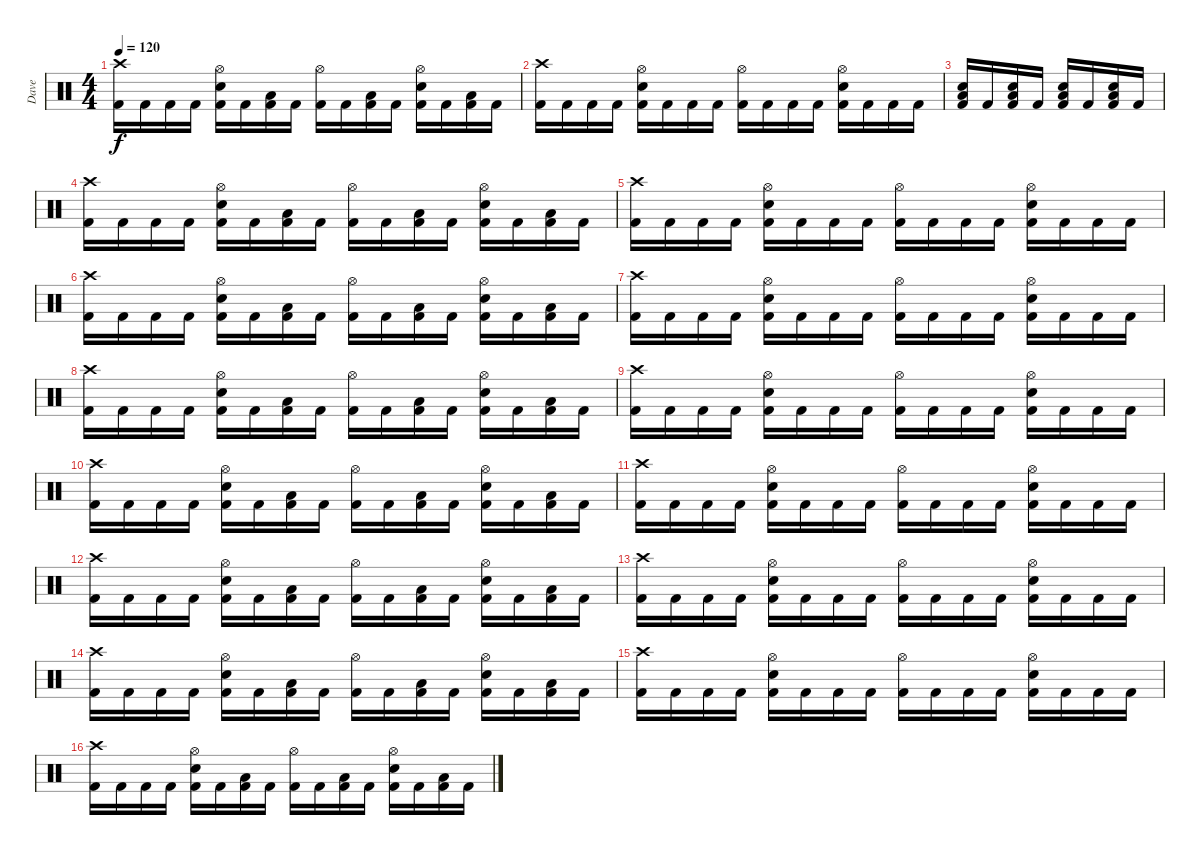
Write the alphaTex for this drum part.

\track ("Dave" "Dave") {instrument percussion}
\staff {score}
\articulation defaults
\ts (4 4)
\tempo 120
\clef neutral
\ks c
("Kick (hit) 2" "Crash high (hit)").16{dy f} "Kick (hit) 2".16 "Kick (hit) 2".16 "Kick (hit) 2".16 ("Kick (hit) 2" "Snare (hit) 2" "Hi-Hat (open)").16 "Kick (hit) 2".16 ("Kick (hit) 2" "Low Tom (hit)").16 "Kick (hit) 2".16 ("Kick (hit) 2" "Hi-Hat (open)").16 "Kick (hit) 2".16 ("Kick (hit) 2" "Low Tom (hit)").16 "Kick (hit) 2".16 ("Kick (hit) 2" "Snare (hit) 2" "Hi-Hat (open)").16 "Kick (hit) 2".16 ("Kick (hit) 2" "Low Floor Tom (hit)").16 "Kick (hit) 2".16 |
("Kick (hit) 2" "Crash high (hit)").16 "Kick (hit) 2".16 "Kick (hit) 2".16 "Kick (hit) 2".16 ("Kick (hit) 2" "Snare (hit) 2" "Hi-Hat (open)").16 "Kick (hit) 2".16 "Kick (hit) 2".16 "Kick (hit) 2".16 ("Kick (hit) 2" "Hi-Hat (open)").16 "Kick (hit) 2".16 "Kick (hit) 2".16 "Kick (hit) 2".16 ("Kick (hit) 2" "Snare (hit) 2" "Hi-Hat (open)").16 "Kick (hit) 2".16 "Kick (hit) 2".16 "Kick (hit) 2".16 |
("Kick (hit) 2" "Snare (hit) 2" "Low Floor Tom (hit)").16 "Kick (hit) 2".16 ("Kick (hit) 2" "Snare (hit) 2" "Low Floor Tom (hit)").16 "Kick (hit) 2".16 ("Kick (hit) 2" "Snare (hit) 2" "Low Floor Tom (hit)").16 "Kick (hit) 2".16 ("Kick (hit) 2" "Snare (hit) 2" "Low Floor Tom (hit)").16 "Kick (hit) 2".16 |
("Kick (hit) 2" "Crash high (hit)").16 "Kick (hit) 2".16 "Kick (hit) 2".16 "Kick (hit) 2".16 ("Kick (hit) 2" "Snare (hit) 2" "Hi-Hat (open)").16 "Kick (hit) 2".16 ("Kick (hit) 2" "Low Tom (hit)").16 "Kick (hit) 2".16 ("Kick (hit) 2" "Hi-Hat (open)").16 "Kick (hit) 2".16 ("Kick (hit) 2" "Low Tom (hit)").16 "Kick (hit) 2".16 ("Kick (hit) 2" "Snare (hit) 2" "Hi-Hat (open)").16 "Kick (hit) 2".16 ("Kick (hit) 2" "Low Floor Tom (hit)").16 "Kick (hit) 2".16 |
("Kick (hit) 2" "Crash high (hit)").16 "Kick (hit) 2".16 "Kick (hit) 2".16 "Kick (hit) 2".16 ("Kick (hit) 2" "Snare (hit) 2" "Hi-Hat (open)").16 "Kick (hit) 2".16 "Kick (hit) 2".16 "Kick (hit) 2".16 ("Kick (hit) 2" "Hi-Hat (open)").16 "Kick (hit) 2".16 "Kick (hit) 2".16 "Kick (hit) 2".16 ("Kick (hit) 2" "Snare (hit) 2" "Hi-Hat (open)").16 "Kick (hit) 2".16 "Kick (hit) 2".16 "Kick (hit) 2".16 |
("Kick (hit) 2" "Crash high (hit)").16 "Kick (hit) 2".16 "Kick (hit) 2".16 "Kick (hit) 2".16 ("Kick (hit) 2" "Snare (hit) 2" "Hi-Hat (open)").16 "Kick (hit) 2".16 ("Kick (hit) 2" "Low Tom (hit)").16 "Kick (hit) 2".16 ("Kick (hit) 2" "Hi-Hat (open)").16 "Kick (hit) 2".16 ("Kick (hit) 2" "Low Tom (hit)").16 "Kick (hit) 2".16 ("Kick (hit) 2" "Snare (hit) 2" "Hi-Hat (open)").16 "Kick (hit) 2".16 ("Kick (hit) 2" "Low Floor Tom (hit)").16 "Kick (hit) 2".16 |
("Kick (hit) 2" "Crash high (hit)").16 "Kick (hit) 2".16 "Kick (hit) 2".16 "Kick (hit) 2".16 ("Kick (hit) 2" "Snare (hit) 2" "Hi-Hat (open)").16 "Kick (hit) 2".16 "Kick (hit) 2".16 "Kick (hit) 2".16 ("Kick (hit) 2" "Hi-Hat (open)").16 "Kick (hit) 2".16 "Kick (hit) 2".16 "Kick (hit) 2".16 ("Kick (hit) 2" "Snare (hit) 2" "Hi-Hat (open)").16 "Kick (hit) 2".16 "Kick (hit) 2".16 "Kick (hit) 2".16 |
("Kick (hit) 2" "Crash high (hit)").16 "Kick (hit) 2".16 "Kick (hit) 2".16 "Kick (hit) 2".16 ("Kick (hit) 2" "Snare (hit) 2" "Hi-Hat (open)").16 "Kick (hit) 2".16 ("Kick (hit) 2" "Low Tom (hit)").16 "Kick (hit) 2".16 ("Kick (hit) 2" "Hi-Hat (open)").16 "Kick (hit) 2".16 ("Kick (hit) 2" "Low Tom (hit)").16 "Kick (hit) 2".16 ("Kick (hit) 2" "Snare (hit) 2" "Hi-Hat (open)").16 "Kick (hit) 2".16 ("Kick (hit) 2" "Low Floor Tom (hit)").16 "Kick (hit) 2".16 |
("Kick (hit) 2" "Crash high (hit)").16 "Kick (hit) 2".16 "Kick (hit) 2".16 "Kick (hit) 2".16 ("Kick (hit) 2" "Snare (hit) 2" "Hi-Hat (open)").16 "Kick (hit) 2".16 "Kick (hit) 2".16 "Kick (hit) 2".16 ("Kick (hit) 2" "Hi-Hat (open)").16 "Kick (hit) 2".16 "Kick (hit) 2".16 "Kick (hit) 2".16 ("Kick (hit) 2" "Snare (hit) 2" "Hi-Hat (open)").16 "Kick (hit) 2".16 "Kick (hit) 2".16 "Kick (hit) 2".16 |
("Kick (hit) 2" "Crash high (hit)").16 "Kick (hit) 2".16 "Kick (hit) 2".16 "Kick (hit) 2".16 ("Kick (hit) 2" "Snare (hit) 2" "Hi-Hat (open)").16 "Kick (hit) 2".16 ("Kick (hit) 2" "Low Tom (hit)").16 "Kick (hit) 2".16 ("Kick (hit) 2" "Hi-Hat (open)").16 "Kick (hit) 2".16 ("Kick (hit) 2" "Low Tom (hit)").16 "Kick (hit) 2".16 ("Kick (hit) 2" "Snare (hit) 2" "Hi-Hat (open)").16 "Kick (hit) 2".16 ("Kick (hit) 2" "Low Floor Tom (hit)").16 "Kick (hit) 2".16 |
("Kick (hit) 2" "Crash high (hit)").16 "Kick (hit) 2".16 "Kick (hit) 2".16 "Kick (hit) 2".16 ("Kick (hit) 2" "Snare (hit) 2" "Hi-Hat (open)").16 "Kick (hit) 2".16 "Kick (hit) 2".16 "Kick (hit) 2".16 ("Kick (hit) 2" "Hi-Hat (open)").16 "Kick (hit) 2".16 "Kick (hit) 2".16 "Kick (hit) 2".16 ("Kick (hit) 2" "Snare (hit) 2" "Hi-Hat (open)").16 "Kick (hit) 2".16 "Kick (hit) 2".16 "Kick (hit) 2".16 |
("Kick (hit) 2" "Crash high (hit)").16 "Kick (hit) 2".16 "Kick (hit) 2".16 "Kick (hit) 2".16 ("Kick (hit) 2" "Snare (hit) 2" "Hi-Hat (open)").16 "Kick (hit) 2".16 ("Kick (hit) 2" "Low Tom (hit)").16 "Kick (hit) 2".16 ("Kick (hit) 2" "Hi-Hat (open)").16 "Kick (hit) 2".16 ("Kick (hit) 2" "Low Tom (hit)").16 "Kick (hit) 2".16 ("Kick (hit) 2" "Snare (hit) 2" "Hi-Hat (open)").16 "Kick (hit) 2".16 ("Kick (hit) 2" "Low Floor Tom (hit)").16 "Kick (hit) 2".16 |
("Kick (hit) 2" "Crash high (hit)").16 "Kick (hit) 2".16 "Kick (hit) 2".16 "Kick (hit) 2".16 ("Kick (hit) 2" "Snare (hit) 2" "Hi-Hat (open)").16 "Kick (hit) 2".16 "Kick (hit) 2".16 "Kick (hit) 2".16 ("Kick (hit) 2" "Hi-Hat (open)").16 "Kick (hit) 2".16 "Kick (hit) 2".16 "Kick (hit) 2".16 ("Kick (hit) 2" "Snare (hit) 2" "Hi-Hat (open)").16 "Kick (hit) 2".16 "Kick (hit) 2".16 "Kick (hit) 2".16 |
("Kick (hit) 2" "Crash high (hit)").16 "Kick (hit) 2".16 "Kick (hit) 2".16 "Kick (hit) 2".16 ("Kick (hit) 2" "Snare (hit) 2" "Hi-Hat (open)").16 "Kick (hit) 2".16 ("Kick (hit) 2" "Low Tom (hit)").16 "Kick (hit) 2".16 ("Kick (hit) 2" "Hi-Hat (open)").16 "Kick (hit) 2".16 ("Kick (hit) 2" "Low Tom (hit)").16 "Kick (hit) 2".16 ("Kick (hit) 2" "Snare (hit) 2" "Hi-Hat (open)").16 "Kick (hit) 2".16 ("Kick (hit) 2" "Low Floor Tom (hit)").16 "Kick (hit) 2".16 |
("Kick (hit) 2" "Crash high (hit)").16 "Kick (hit) 2".16 "Kick (hit) 2".16 "Kick (hit) 2".16 ("Kick (hit) 2" "Snare (hit) 2" "Hi-Hat (open)").16 "Kick (hit) 2".16 "Kick (hit) 2".16 "Kick (hit) 2".16 ("Kick (hit) 2" "Hi-Hat (open)").16 "Kick (hit) 2".16 "Kick (hit) 2".16 "Kick (hit) 2".16 ("Kick (hit) 2" "Snare (hit) 2" "Hi-Hat (open)").16 "Kick (hit) 2".16 "Kick (hit) 2".16 "Kick (hit) 2".16 |
("Kick (hit) 2" "Crash high (hit)").16 "Kick (hit) 2".16 "Kick (hit) 2".16 "Kick (hit) 2".16 ("Kick (hit) 2" "Snare (hit) 2" "Hi-Hat (open)").16 "Kick (hit) 2".16 ("Kick (hit) 2" "Low Tom (hit)").16 "Kick (hit) 2".16 ("Kick (hit) 2" "Hi-Hat (open)").16 "Kick (hit) 2".16 ("Kick (hit) 2" "Low Tom (hit)").16 "Kick (hit) 2".16 ("Kick (hit) 2" "Snare (hit) 2" "Hi-Hat (open)").16 "Kick (hit) 2".16 ("Kick (hit) 2" "Low Floor Tom (hit)").16 "Kick (hit) 2".16
